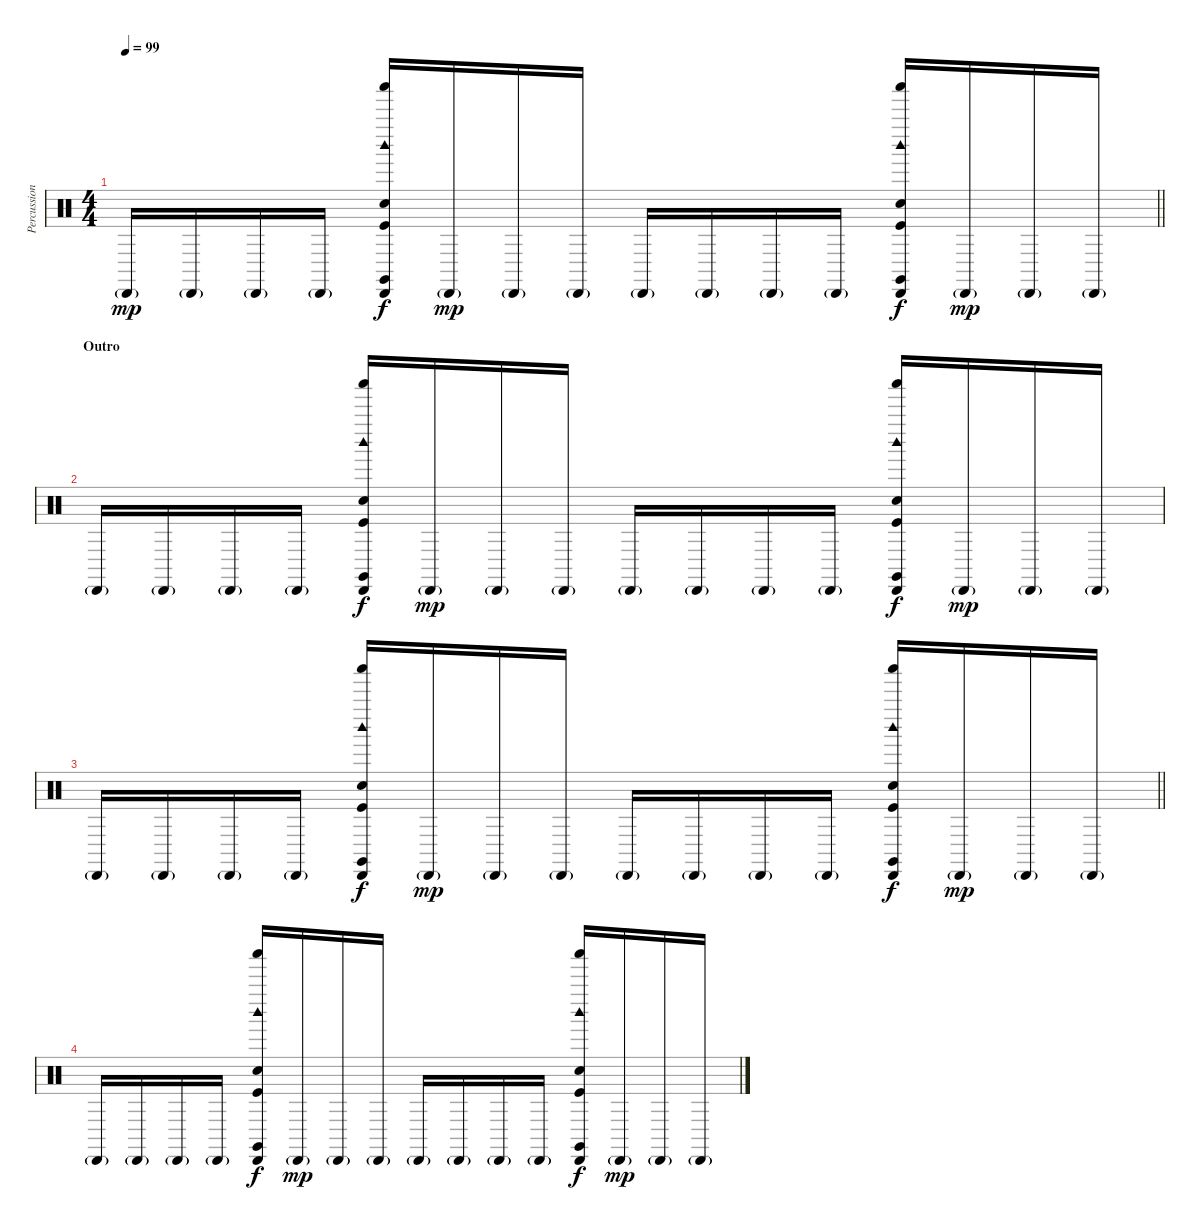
\track ("Percussion" "Percussion") {instrument percussion}
\staff {score}
\articulation defaults
\ts (4 4)
\tempo 99
\clef neutral
\barLineRight lightlight
\ks c "Cabasa (hit)"{g}.16{dy mp} "Cabasa (hit)"{g}.16 "Cabasa (hit)"{g}.16 "Cabasa (hit)"{g}.16
("Cabasa (hit)" "Shaker (hit)" "Claves (hit)" "Woodblock high (hit)" "Hand Clap (hit)" "Kick (hit)").16{dy f} "Cabasa (hit)"{g}.16{dy mp} "Cabasa (hit)"{g}.16 "Cabasa (hit)"{g}.16 "Cabasa (hit)"{g}.16 "Cabasa (hit)"{g}.16 "Cabasa (hit)"{g}.16 "Cabasa (hit)"{g}.16 ("Cabasa (hit)" "Shaker (hit)" "Claves (hit)" "Woodblock high (hit)" "Hand Clap (hit)" "Kick (hit)").16{dy f} "Cabasa (hit)"{g}.16{dy mp} "Cabasa (hit)"{g}.16 "Cabasa (hit)"{g}.16 |
\section ("" "Outro")
"Cabasa (hit)"{g}.16 "Cabasa (hit)"{g}.16 "Cabasa (hit)"{g}.16 "Cabasa (hit)"{g}.16 ("Cabasa (hit)" "Shaker (hit)" "Claves (hit)" "Woodblock high (hit)" "Hand Clap (hit)" "Kick (hit)").16{dy f} "Cabasa (hit)"{g}.16{dy mp} "Cabasa (hit)"{g}.16 "Cabasa (hit)"{g}.16 "Cabasa (hit)"{g}.16 "Cabasa (hit)"{g}.16 "Cabasa (hit)"{g}.16 "Cabasa (hit)"{g}.16 ("Cabasa (hit)" "Shaker (hit)" "Claves (hit)" "Woodblock high (hit)" "Hand Clap (hit)" "Kick (hit)").16{dy f} "Cabasa (hit)"{g}.16{dy mp} "Cabasa (hit)"{g}.16 "Cabasa (hit)"{g}.16 |
\barLineRight lightlight "Cabasa (hit)"{g}.16 "Cabasa (hit)"{g}.16 "Cabasa (hit)"{g}.16 "Cabasa (hit)"{g}.16
("Cabasa (hit)" "Shaker (hit)" "Claves (hit)" "Woodblock high (hit)" "Hand Clap (hit)" "Kick (hit)").16{dy f} "Cabasa (hit)"{g}.16{dy mp} "Cabasa (hit)"{g}.16 "Cabasa (hit)"{g}.16 "Cabasa (hit)"{g}.16 "Cabasa (hit)"{g}.16 "Cabasa (hit)"{g}.16 "Cabasa (hit)"{g}.16 ("Cabasa (hit)" "Shaker (hit)" "Claves (hit)" "Woodblock high (hit)" "Hand Clap (hit)" "Kick (hit)").16{dy f} "Cabasa (hit)"{g}.16{dy mp} "Cabasa (hit)"{g}.16 "Cabasa (hit)"{g}.16 |
"Cabasa (hit)"{g}.16 "Cabasa (hit)"{g}.16 "Cabasa (hit)"{g}.16 "Cabasa (hit)"{g}.16 ("Cabasa (hit)" "Shaker (hit)" "Claves (hit)" "Woodblock high (hit)" "Hand Clap (hit)" "Kick (hit)").16{dy f} "Cabasa (hit)"{g}.16{dy mp} "Cabasa (hit)"{g}.16 "Cabasa (hit)"{g}.16 "Cabasa (hit)"{g}.16 "Cabasa (hit)"{g}.16 "Cabasa (hit)"{g}.16 "Cabasa (hit)"{g}.16 ("Cabasa (hit)" "Shaker (hit)" "Claves (hit)" "Woodblock high (hit)" "Hand Clap (hit)" "Kick (hit)").16{dy f} "Cabasa (hit)"{g}.16{dy mp} "Cabasa (hit)"{g}.16 "Cabasa (hit)"{g}.16
